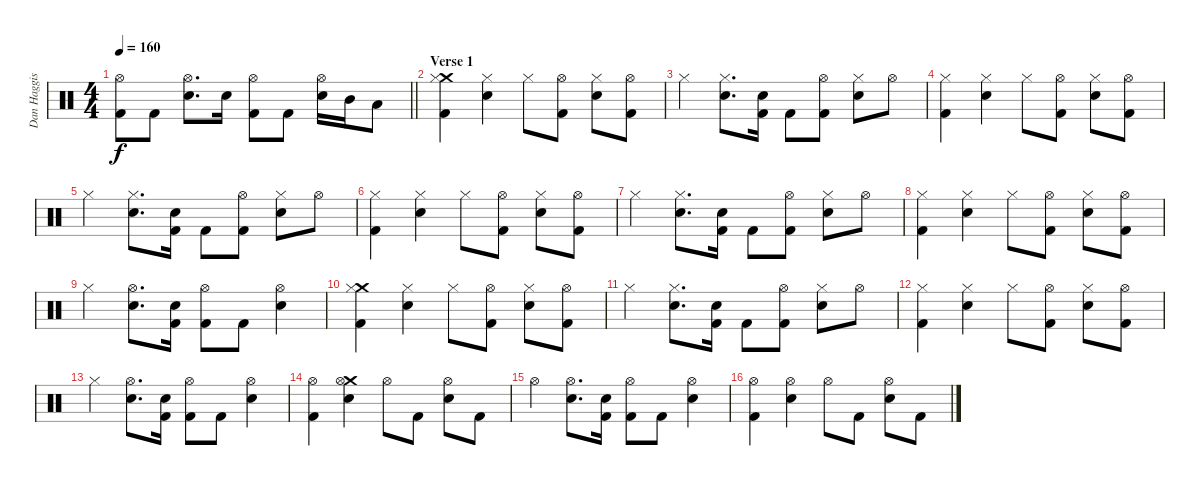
\track ("Dan Haggis" "Dan Haggis") {instrument percussion}
\staff {score}
\articulation defaults
\ts (4 4)
\tempo 160
\clef neutral
\barLineRight lightlight
\ks c
("Kick (hit) 2"{t} "Hi-Hat (open)").8{dy f} "Kick (hit) 2".8 ("Hi-Hat (open)" "Electric Snare (hit)").8{d} "Electric Snare (hit)".16 ("Hi-Hat (open)" "Kick (hit) 2").8 "Kick (hit) 2".8 ("Electric Snare (hit)" "Hi-Hat (open)").16 "Mid Tom (hit)".16 "Low Tom (hit)".8 |
\section ("" "Verse 1")
("Crash medium (hit)" "Hi-Hat (closed)" "Kick (hit) 2").4 ("Hi-Hat (closed)" "Electric Snare (hit)").4 "Hi-Hat (closed)".8 ("Hi-Hat (open)" "Kick (hit) 2").8 ("Hi-Hat (closed)" "Electric Snare (hit)").8 ("Hi-Hat (open)" "Kick (hit) 2").8 |
"Hi-Hat (closed)".4 ("Hi-Hat (closed)" "Electric Snare (hit)").8{d} ("Kick (hit) 2" "Electric Snare (hit)").16 "Kick (hit) 2".8 ("Hi-Hat (open)" "Kick (hit) 2").8 ("Hi-Hat (closed)" "Electric Snare (hit)").8 "Hi-Hat (open)".8 |
("Hi-Hat (closed)" "Kick (hit) 2").4 ("Hi-Hat (closed)" "Electric Snare (hit)").4 "Hi-Hat (closed)".8 ("Hi-Hat (open)" "Kick (hit) 2").8 ("Hi-Hat (closed)" "Electric Snare (hit)").8 ("Hi-Hat (open)" "Kick (hit) 2").8 |
"Hi-Hat (closed)".4 ("Hi-Hat (closed)" "Electric Snare (hit)").8{d} ("Kick (hit) 2" "Electric Snare (hit)").16 "Kick (hit) 2".8 ("Hi-Hat (open)" "Kick (hit) 2").8 ("Hi-Hat (closed)" "Electric Snare (hit)").8 "Hi-Hat (open)".8 |
("Hi-Hat (closed)" "Kick (hit) 2").4 ("Hi-Hat (closed)" "Electric Snare (hit)").4 "Hi-Hat (closed)".8 ("Hi-Hat (open)" "Kick (hit) 2").8 ("Hi-Hat (closed)" "Electric Snare (hit)").8 ("Hi-Hat (open)" "Kick (hit) 2").8 |
"Hi-Hat (closed)".4 ("Hi-Hat (closed)" "Electric Snare (hit)").8{d} ("Kick (hit) 2" "Electric Snare (hit)").16 "Kick (hit) 2".8 ("Hi-Hat (open)" "Kick (hit) 2").8 ("Hi-Hat (closed)" "Electric Snare (hit)").8 "Hi-Hat (open)".8 |
("Hi-Hat (closed)" "Kick (hit) 2").4 ("Hi-Hat (closed)" "Electric Snare (hit)").4 "Hi-Hat (closed)".8 ("Hi-Hat (open)" "Kick (hit) 2").8 ("Hi-Hat (closed)" "Electric Snare (hit)").8 ("Hi-Hat (open)" "Kick (hit) 2").8 |
"Hi-Hat (closed)".4 ("Hi-Hat (open)" "Electric Snare (hit)").8{d} ("Kick (hit) 2" "Electric Snare (hit)").16 ("Hi-Hat (open)" "Kick (hit) 2").8 "Kick (hit) 2".8 ("Hi-Hat (open)" "Electric Snare (hit)").4 |
("Crash medium (hit)" "Hi-Hat (closed)" "Kick (hit) 2").4 ("Hi-Hat (closed)" "Electric Snare (hit)").4 "Hi-Hat (closed)".8 ("Hi-Hat (open)" "Kick (hit) 2").8 ("Hi-Hat (closed)" "Electric Snare (hit)").8 ("Hi-Hat (open)" "Kick (hit) 2").8 |
"Hi-Hat (closed)".4 ("Hi-Hat (closed)" "Electric Snare (hit)").8{d} ("Kick (hit) 2" "Electric Snare (hit)").16 "Kick (hit) 2".8 ("Hi-Hat (open)" "Kick (hit) 2").8 ("Hi-Hat (closed)" "Electric Snare (hit)").8 "Hi-Hat (open)".8 |
("Hi-Hat (closed)" "Kick (hit) 2").4 ("Hi-Hat (closed)" "Electric Snare (hit)").4 "Hi-Hat (closed)".8 ("Hi-Hat (open)" "Kick (hit) 2").8 ("Hi-Hat (closed)" "Electric Snare (hit)").8 ("Hi-Hat (open)" "Kick (hit) 2").8 |
"Hi-Hat (closed)".4 ("Hi-Hat (open)" "Electric Snare (hit)").8{d} ("Kick (hit) 2" "Electric Snare (hit)").16 ("Hi-Hat (open)" "Kick (hit) 2").8 "Kick (hit) 2".8 ("Hi-Hat (open)" "Electric Snare (hit)").4 |
("Hi-Hat (open)" "Kick (hit) 2").4 ("Crash medium (hit)" "Hi-Hat (open)" "Electric Snare (hit)").4 "Hi-Hat (open)".8 "Kick (hit) 2".8 ("Hi-Hat (open)" "Electric Snare (hit)").8 "Kick (hit) 2".8 |
"Hi-Hat (open)".4 ("Hi-Hat (open)" "Electric Snare (hit)").8{d} ("Kick (hit) 2" "Electric Snare (hit)").16 ("Hi-Hat (open)" "Kick (hit) 2").8 "Kick (hit) 2".8 ("Hi-Hat (open)" "Electric Snare (hit)").4 |
("Hi-Hat (open)" "Kick (hit) 2").4 ("Hi-Hat (open)" "Electric Snare (hit)").4 "Hi-Hat (open)".8 "Kick (hit) 2".8 ("Hi-Hat (open)" "Electric Snare (hit)").8 "Kick (hit) 2".8
